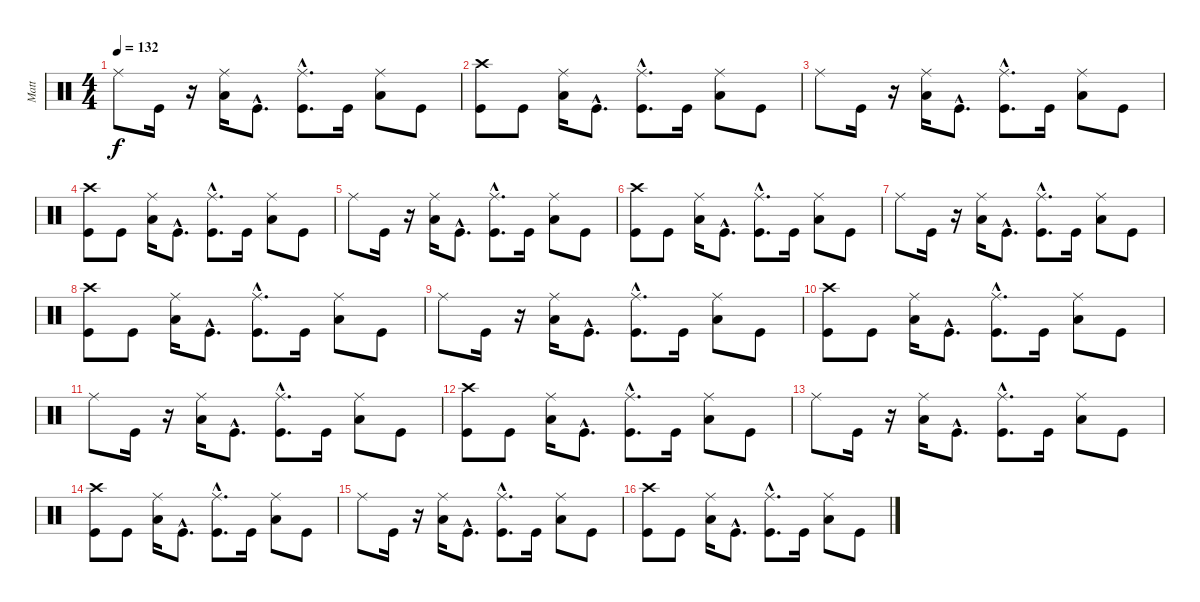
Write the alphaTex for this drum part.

\track ("Matt" "Matt") {instrument percussion}
\staff {score}
\articulation defaults
\ts (4 4)
\tempo 132
\clef neutral
\ks c "Ride (middle)".8{dy f} "Kick (hit)".16
r.16 ("Low Tom (hit)" "Ride (middle)").16 "Kick (hit)"{hac}.8{d} ("Kick (hit)"{hac} "Ride (middle)").8{d} "Kick (hit)".16 ("Low Tom (hit)" "Ride (middle)").8 "Kick (hit)".8 |
("Kick (hit)" "Crash high (hit)").8 "Kick (hit)".8 ("Ride (middle)" "Low Tom (hit)").16 "Kick (hit)"{hac}.8{d} ("Ride (middle)" "Kick (hit)"{hac}).8{d} "Kick (hit)".16 ("Low Tom (hit)" "Ride (middle)").8 "Kick (hit)".8 |
"Ride (middle)".8 "Kick (hit)".16 r.16 ("Ride (middle)" "Low Tom (hit)").16 "Kick (hit)"{hac}.8{d} ("Kick (hit)"{hac} "Ride (middle)").8{d} "Kick (hit)".16 ("Low Tom (hit)" "Ride (middle)").8 "Kick (hit)".8 |
("Kick (hit)" "Crash high (hit)").8 "Kick (hit)".8 ("Ride (middle)" "Low Tom (hit)").16 "Kick (hit)"{hac}.8{d} ("Kick (hit)"{hac} "Ride (middle)").8{d} "Kick (hit)".16 ("Ride (middle)" "Low Tom (hit)").8 "Kick (hit)".8 |
"Ride (middle)".8 "Kick (hit)".16 r.16 ("Ride (middle)" "Low Tom (hit)").16 "Kick (hit)"{hac}.8{d} ("Ride (middle)" "Kick (hit)"{hac}).8{d} "Kick (hit)".16 ("Ride (middle)" "Low Tom (hit)").8 "Kick (hit)".8 |
("Kick (hit)" "Crash high (hit)").8 "Kick (hit)".8 ("Ride (middle)" "Low Tom (hit)").16 "Kick (hit)"{hac}.8{d} ("Kick (hit)"{hac} "Ride (middle)").8{d} "Kick (hit)".16 ("Low Tom (hit)" "Ride (middle)").8 "Kick (hit)".8 |
"Ride (middle)".8 "Kick (hit)".16 r.16 ("Low Tom (hit)" "Ride (middle)").16 "Kick (hit)"{hac}.8{d} ("Kick (hit)"{hac} "Ride (middle)").8{d} "Kick (hit)".16 ("Low Tom (hit)" "Ride (middle)").8 "Kick (hit)".8 |
("Crash high (hit)" "Kick (hit)").8 "Kick (hit)".8 ("Ride (middle)" "Low Tom (hit)").16 "Kick (hit)"{hac}.8{d} ("Kick (hit)"{hac} "Ride (middle)").8{d} "Kick (hit)".16 ("Ride (middle)" "Low Tom (hit)").8 "Kick (hit)".8 |
"Ride (middle)".8 "Kick (hit)".16 r.16 ("Low Tom (hit)" "Ride (middle)").16 "Kick (hit)"{hac}.8{d} ("Kick (hit)"{hac} "Ride (middle)").8{d} "Kick (hit)".16 ("Low Tom (hit)" "Ride (middle)").8 "Kick (hit)".8 |
("Crash high (hit)" "Kick (hit)").8 "Kick (hit)".8 ("Ride (middle)" "Low Tom (hit)").16 "Kick (hit)"{hac}.8{d} ("Ride (middle)" "Kick (hit)"{hac}).8{d} "Kick (hit)".16 ("Ride (middle)" "Low Tom (hit)").8 "Kick (hit)".8 |
"Ride (middle)".8 "Kick (hit)".16 r.16 ("Low Tom (hit)" "Ride (middle)").16 "Kick (hit)"{hac}.8{d} ("Kick (hit)"{hac} "Ride (middle)").8{d} "Kick (hit)".16 ("Ride (middle)" "Low Tom (hit)").8 "Kick (hit)".8 |
("Crash high (hit)" "Kick (hit)").8 "Kick (hit)".8 ("Ride (middle)" "Low Tom (hit)").16 "Kick (hit)"{hac}.8{d} ("Ride (middle)" "Kick (hit)"{hac}).8{d} "Kick (hit)".16 ("Low Tom (hit)" "Ride (middle)").8 "Kick (hit)".8 |
"Ride (middle)".8 "Kick (hit)".16 r.16 ("Ride (middle)" "Low Tom (hit)").16 "Kick (hit)"{hac}.8{d} ("Kick (hit)"{hac} "Ride (middle)").8{d} "Kick (hit)".16 ("Low Tom (hit)" "Ride (middle)").8 "Kick (hit)".8 |
("Kick (hit)" "Crash high (hit)").8 "Kick (hit)".8 ("Ride (middle)" "Low Tom (hit)").16 "Kick (hit)"{hac}.8{d} ("Ride (middle)" "Kick (hit)"{hac}).8{d} "Kick (hit)".16 ("Ride (middle)" "Low Tom (hit)").8 "Kick (hit)".8 |
"Ride (middle)".8 "Kick (hit)".16 r.16 ("Low Tom (hit)" "Ride (middle)").16 "Kick (hit)"{hac}.8{d} ("Kick (hit)"{hac} "Ride (middle)").8{d} "Kick (hit)".16 ("Ride (middle)" "Low Tom (hit)").8 "Kick (hit)".8 |
("Kick (hit)" "Crash high (hit)").8 "Kick (hit)".8 ("Ride (middle)" "Low Tom (hit)").16 "Kick (hit)"{hac}.8{d} ("Kick (hit)"{hac} "Ride (middle)").8{d} "Kick (hit)".16 ("Ride (middle)" "Low Tom (hit)").8 "Kick (hit)".8
